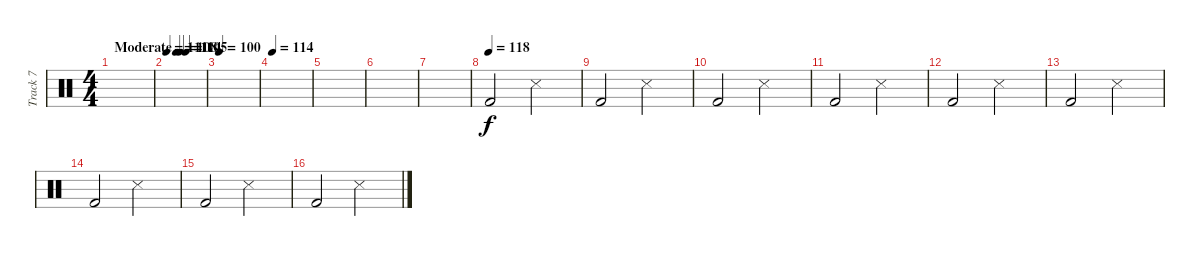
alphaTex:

\track ("Track 7" "Track 7") {instrument percussion}
\staff {score}
\articulation defaults
\ts (4 4)
\tempo (114 "Moderate")
\clef neutral
\ks c
|
\tempo 111
\tempo (108 0.25)
\tempo (105 0.5)
|
\tempo 100
|
\tempo 114
|
|
|
|
\tempo (118)
"Kick (hit) 2".2 "Snare (side stick) 3".2 |
"Kick (hit) 2".2 "Snare (side stick) 3".2 |
"Kick (hit) 2".2 "Snare (side stick) 3".2 |
"Kick (hit) 2".2 "Snare (side stick) 3".2 |
"Kick (hit) 2".2 "Snare (side stick) 3".2 |
"Kick (hit) 2".2 "Snare (side stick) 3".2 |
"Kick (hit) 2".2 "Snare (side stick) 3".2 |
"Kick (hit) 2".2 "Snare (side stick) 3".2 |
"Kick (hit) 2".2 "Snare (side stick) 3".2
